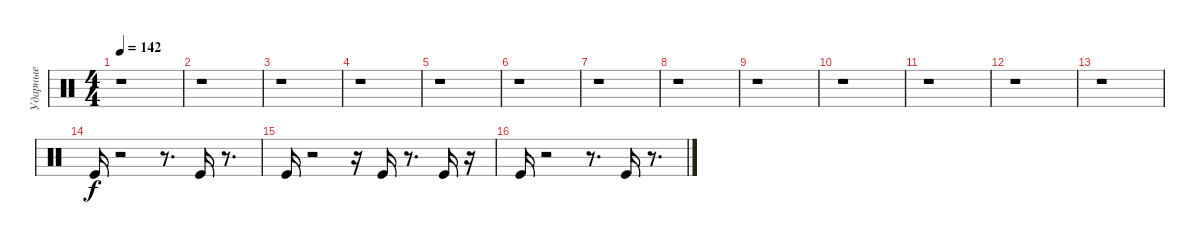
\track ("Ударные" "Ударные") {instrument percussion}
\staff {score}
\articulation defaults
\ts (4 4)
\tempo 142
\clef neutral
\ks c
r.1{dy f} |
r.1 |
r.1 |
r.1 |
r.1 |
r.1 |
r.1 |
r.1 |
r.1 |
r.1 |
r.1 |
r.1 |
r.1 |
"Kick (hit)".16 r.2 r.8{d} "Kick (hit)".16 r.8{d} |
"Kick (hit)".16 r.2 r.16 "Kick (hit)".16 r.8{d} "Kick (hit)".16 r.16 |
"Kick (hit)".16 r.2 r.8{d} "Kick (hit)".16 r.8{d}
